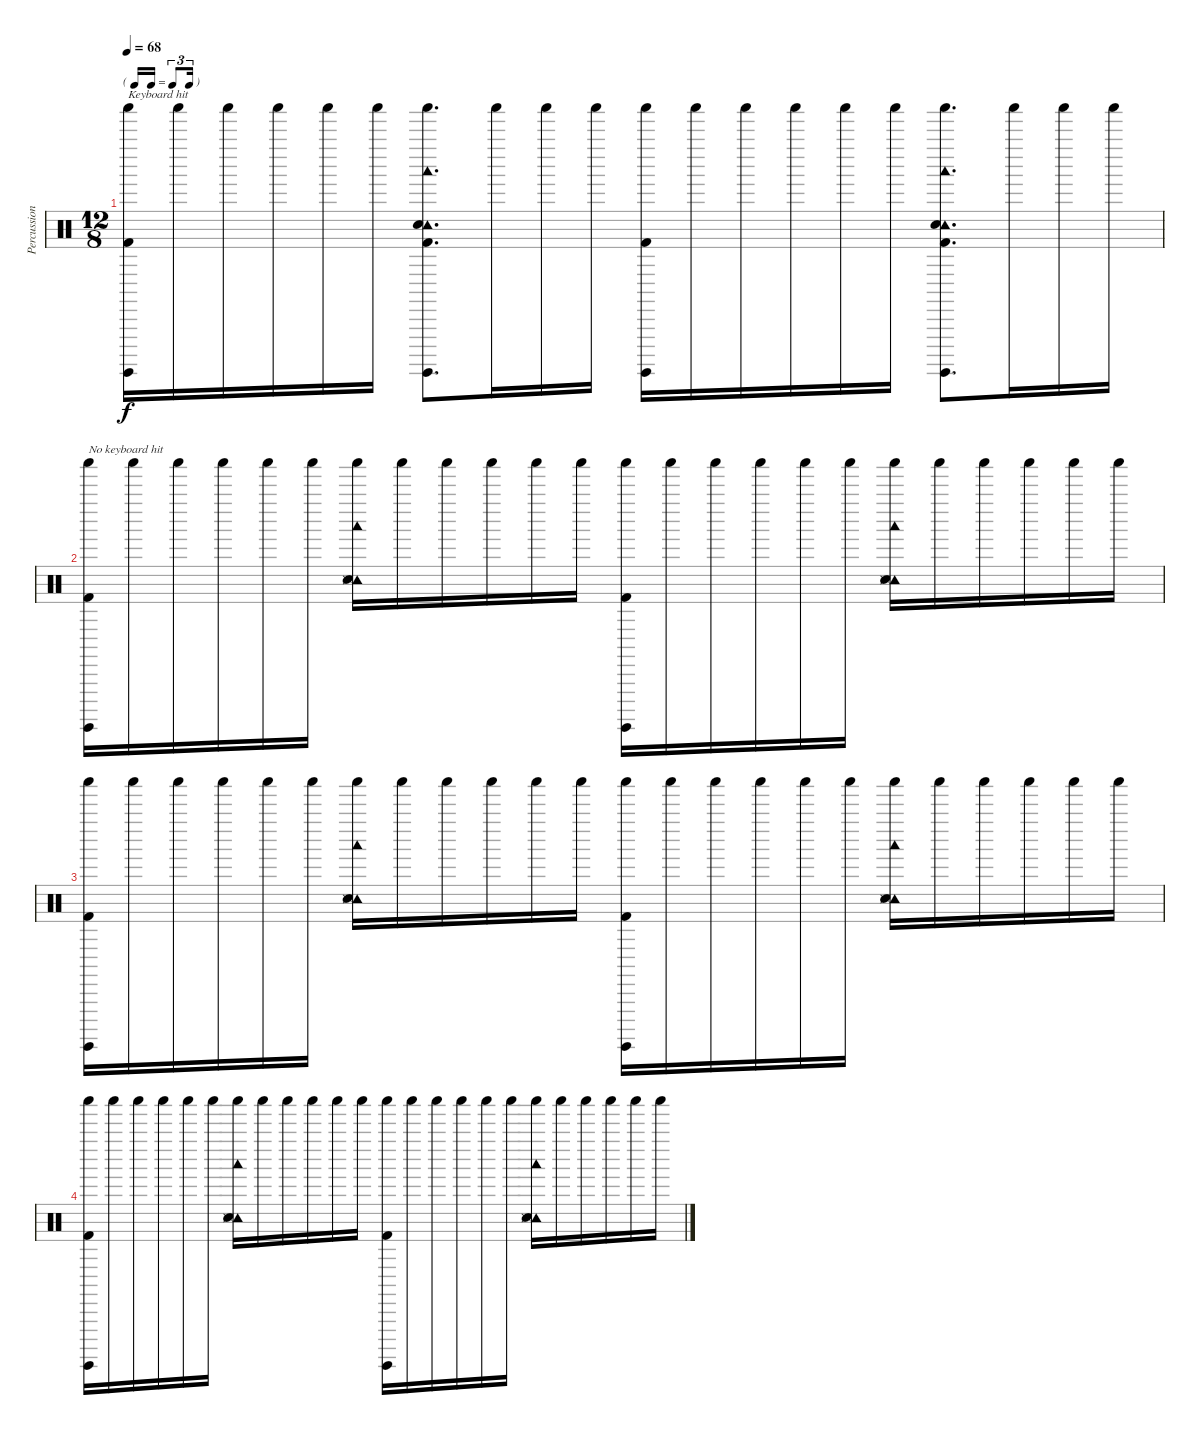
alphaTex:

\track ("Percussion" "Percussion") {instrument percussion}
\staff {score}
\articulation defaults
\ts (12 8)
\tf triplet16th
\tempo 68
\clef neutral
\ks c
("Shaker (hit)" "Surdo (hit)" "Kick (hit) 2").16{txt "Keyboard hit" dy f} "Shaker (hit)".16 "Shaker (hit)".16 "Shaker (hit)".16 "Shaker (hit)".16 "Shaker (hit)".16 ("Tambourine (hit)" "Shaker (hit)" "Hand Clap (hit)" "Woodblock low (hit)" "Surdo (hit)" "Kick (hit) 2").8{d} "Shaker (hit)".16 "Shaker (hit)".16 "Shaker (hit)".16 ("Shaker (hit)" "Surdo (hit)" "Kick (hit) 2").16 "Shaker (hit)".16 "Shaker (hit)".16 "Shaker (hit)".16 "Shaker (hit)".16 "Shaker (hit)".16 ("Tambourine (hit)" "Shaker (hit)" "Hand Clap (hit)" "Woodblock low (hit)" "Surdo (hit)" "Kick (hit) 2").8{d} "Shaker (hit)".16 "Shaker (hit)".16 "Shaker (hit)".16 |
("Shaker (hit)" "Surdo (hit)" "Kick (hit) 2").16{txt "No keyboard hit"} "Shaker (hit)".16 "Shaker (hit)".16 "Shaker (hit)".16 "Shaker (hit)".16 "Shaker (hit)".16 ("Tambourine (hit)" "Shaker (hit)" "Hand Clap (hit)" "Woodblock low (hit)" "Snare (side stick) 3").16 "Shaker (hit)".16 "Shaker (hit)".16 "Shaker (hit)".16 "Shaker (hit)".16 "Shaker (hit)".16 ("Shaker (hit)" "Surdo (hit)" "Kick (hit) 2").16 "Shaker (hit)".16 "Shaker (hit)".16 "Shaker (hit)".16 "Shaker (hit)".16 "Shaker (hit)".16 ("Tambourine (hit)" "Shaker (hit)" "Hand Clap (hit)" "Woodblock low (hit)" "Snare (side stick) 3").16 "Shaker (hit)".16 "Shaker (hit)".16 "Shaker (hit)".16 "Shaker (hit)".16 "Shaker (hit)".16 |
("Shaker (hit)" "Surdo (hit)" "Kick (hit) 2").16 "Shaker (hit)".16 "Shaker (hit)".16 "Shaker (hit)".16 "Shaker (hit)".16 "Shaker (hit)".16 ("Tambourine (hit)" "Shaker (hit)" "Hand Clap (hit)" "Woodblock low (hit)" "Snare (side stick) 3").16 "Shaker (hit)".16 "Shaker (hit)".16 "Shaker (hit)".16 "Shaker (hit)".16 "Shaker (hit)".16 ("Shaker (hit)" "Surdo (hit)" "Kick (hit) 2").16 "Shaker (hit)".16 "Shaker (hit)".16 "Shaker (hit)".16 "Shaker (hit)".16 "Shaker (hit)".16 ("Tambourine (hit)" "Shaker (hit)" "Hand Clap (hit)" "Woodblock low (hit)" "Snare (side stick) 3").16 "Shaker (hit)".16 "Shaker (hit)".16 "Shaker (hit)".16 "Shaker (hit)".16 "Shaker (hit)".16 |
("Shaker (hit)" "Surdo (hit)" "Kick (hit) 2").16 "Shaker (hit)".16 "Shaker (hit)".16 "Shaker (hit)".16 "Shaker (hit)".16 "Shaker (hit)".16 ("Tambourine (hit)" "Shaker (hit)" "Hand Clap (hit)" "Woodblock low (hit)" "Snare (side stick) 3").16 "Shaker (hit)".16 "Shaker (hit)".16 "Shaker (hit)".16 "Shaker (hit)".16 "Shaker (hit)".16 ("Shaker (hit)" "Surdo (hit)" "Kick (hit) 2").16 "Shaker (hit)".16 "Shaker (hit)".16 "Shaker (hit)".16 "Shaker (hit)".16 "Shaker (hit)".16 ("Tambourine (hit)" "Shaker (hit)" "Hand Clap (hit)" "Woodblock low (hit)" "Snare (side stick) 3").16 "Shaker (hit)".16 "Shaker (hit)".16 "Shaker (hit)".16 "Shaker (hit)".16 "Shaker (hit)".16
